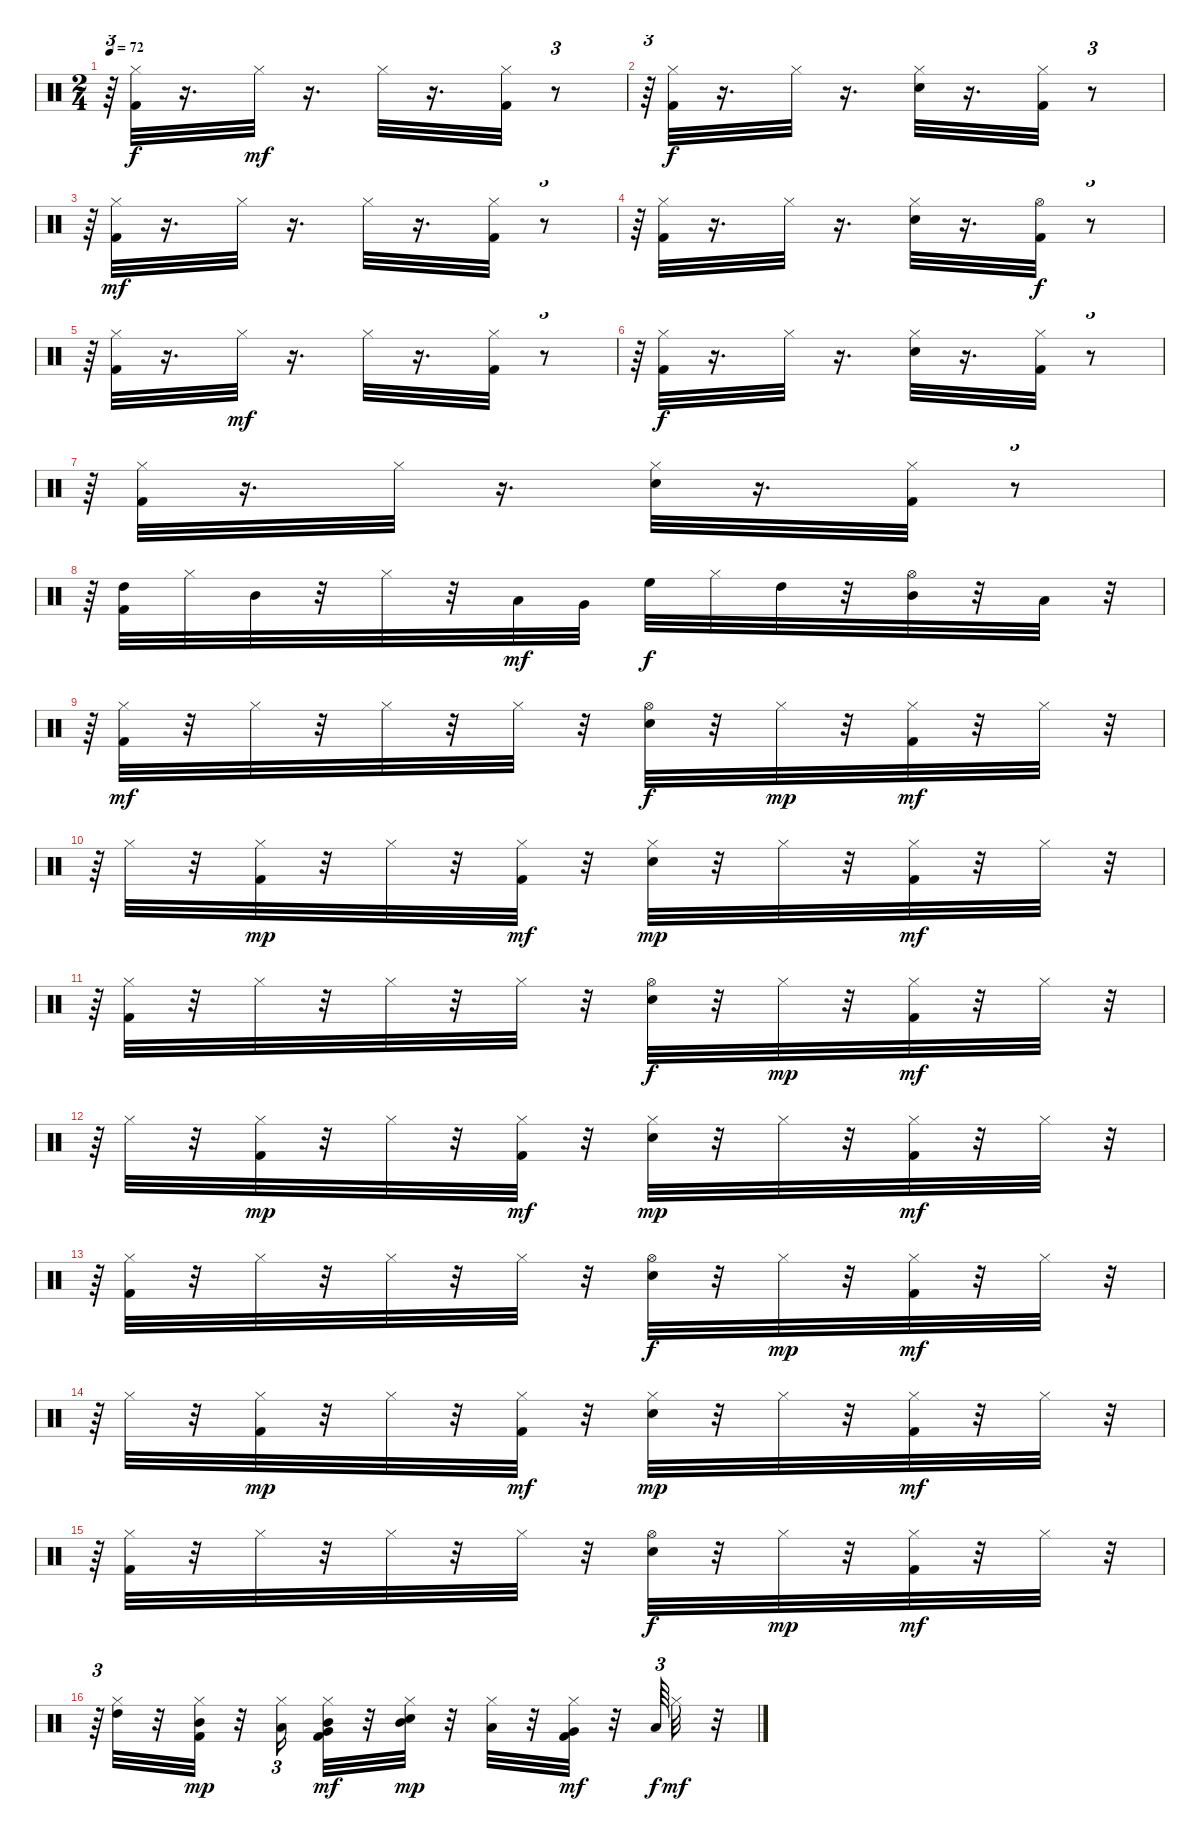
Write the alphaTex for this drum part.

\track "" {instrument percussion}
\staff {score}
\articulation defaults
\ts (2 4)
\tempo 72
\clef neutral
\ks c
r.64{tu (3 2) dy f} ("Hi-Hat (closed)" "Kick (hit) 2").32 r.16{d} "Hi-Hat (closed)".32{dy mf} r.16{d} "Hi-Hat (closed)".32 r.16{d} ("Hi-Hat (closed)" "Kick (hit) 2").32 r.8{tu (3 2)} |
r.64{tu (3 2)} ("Hi-Hat (closed)" "Kick (hit) 2").32{dy f} r.16{d} "Hi-Hat (closed)".32 r.16{d} ("Hi-Hat (closed)" "Snare (hit) 2").32 r.16{d} ("Kick (hit) 2" "Hi-Hat (closed)").32 r.8{tu (3 2)} |
r.64{tu (3 2)} ("Kick (hit) 2" "Hi-Hat (closed)").32{dy mf} r.16{d} "Hi-Hat (closed)".32 r.16{d} "Hi-Hat (closed)".32 r.16{d} ("Hi-Hat (closed)" "Kick (hit) 2").32 r.8{tu (3 2)} |
r.64{tu (3 2)} ("Hi-Hat (closed)" "Kick (hit) 2").32 r.16{d} "Hi-Hat (closed)".32 r.16{d} ("Hi-Hat (closed)" "Snare (hit) 2").32 r.16{d} ("Hi-Hat (open)" "Kick (hit) 2").32{dy f} r.8{tu (3 2)} |
r.64{tu (3 2)} ("Hi-Hat (closed)" "Kick (hit) 2").32 r.16{d} "Hi-Hat (closed)".32{dy mf} r.16{d} "Hi-Hat (closed)".32 r.16{d} ("Hi-Hat (closed)" "Kick (hit) 2").32 r.8{tu (3 2)} |
r.64{tu (3 2)} ("Hi-Hat (closed)" "Kick (hit) 2").32{dy f} r.16{d} "Hi-Hat (closed)".32 r.16{d} ("Hi-Hat (closed)" "Snare (hit) 2").32 r.16{d} ("Kick (hit) 2" "Hi-Hat (closed)").32 r.8{tu (3 2)} |
r.64{tu (3 2)} ("Hi-Hat (closed)" "Kick (hit) 2").32 r.16{d} "Hi-Hat (closed)".32 r.16{d} ("Hi-Hat (closed)" "Snare (hit) 2").32 r.16{d} ("Kick (hit) 2" "Hi-Hat (closed)").32 r.8{tu (3 2)} |
r.64{tu (3 2)} ("High Tom (hit)" "Kick (hit) 2").32 "Hi-Hat (closed)".32 "Mid Tom (hit)".32 r.32 "Hi-Hat (closed)".32 r.32 "Low Tom (hit)".32{dy mf} "Very Low Tom (hit)".32 "High Floor Tom (hit)".32{dy f} "Hi-Hat (closed)".32 "High Tom (hit)".32 r.32 ("Mid Tom (hit)" "Hi-Hat (open)").32 r.32 "Low Tom (hit)".32 r.32{tu (3 2)} |
r.64{tu (3 2)} ("Hi-Hat (closed)" "Kick (hit) 2").32{dy mf} r.32 "Hi-Hat (closed)".32 r.32 "Hi-Hat (closed)".32 r.32 "Hi-Hat (closed)".32 r.32 ("Snare (hit) 2" "Hi-Hat (open)").32{dy f} r.32 "Hi-Hat (closed)".32{dy mp} r.32 ("Kick (hit) 2" "Hi-Hat (closed)").32{dy mf} r.32 "Hi-Hat (closed)".32 r.32{tu (3 2)} |
r.64{tu (3 2)} "Hi-Hat (closed)".32 r.32 ("Hi-Hat (closed)" "Kick (hit) 2").32{dy mp} r.32 "Hi-Hat (closed)".32 r.32 ("Kick (hit) 2" "Hi-Hat (closed)").32{dy mf} r.32 ("Hi-Hat (closed)" "Snare (hit) 2").32{dy mp} r.32 "Hi-Hat (closed)".32 r.32 ("Kick (hit) 2" "Hi-Hat (closed)").32{dy mf} r.32 "Hi-Hat (closed)".32 r.32{tu (3 2)} |
r.64{tu (3 2)} ("Hi-Hat (closed)" "Kick (hit) 2").32 r.32 "Hi-Hat (closed)".32 r.32 "Hi-Hat (closed)".32 r.32 "Hi-Hat (closed)".32 r.32 ("Snare (hit) 2" "Hi-Hat (open)").32{dy f} r.32 "Hi-Hat (closed)".32{dy mp} r.32 ("Kick (hit) 2" "Hi-Hat (closed)").32{dy mf} r.32 "Hi-Hat (closed)".32 r.32{tu (3 2)} |
r.64{tu (3 2)} "Hi-Hat (closed)".32 r.32 ("Hi-Hat (closed)" "Kick (hit) 2").32{dy mp} r.32 "Hi-Hat (closed)".32 r.32 ("Kick (hit) 2" "Hi-Hat (closed)").32{dy mf} r.32 ("Hi-Hat (closed)" "Snare (hit) 2").32{dy mp} r.32 "Hi-Hat (closed)".32 r.32 ("Kick (hit) 2" "Hi-Hat (closed)").32{dy mf} r.32 "Hi-Hat (closed)".32 r.32{tu (3 2)} |
r.64{tu (3 2)} ("Hi-Hat (closed)" "Kick (hit) 2").32 r.32 "Hi-Hat (closed)".32 r.32 "Hi-Hat (closed)".32 r.32 "Hi-Hat (closed)".32 r.32 ("Snare (hit) 2" "Hi-Hat (open)").32{dy f} r.32 "Hi-Hat (closed)".32{dy mp} r.32 ("Kick (hit) 2" "Hi-Hat (closed)").32{dy mf} r.32 "Hi-Hat (closed)".32 r.32{tu (3 2)} |
r.64{tu (3 2)} "Hi-Hat (closed)".32 r.32 ("Hi-Hat (closed)" "Kick (hit) 2").32{dy mp} r.32 "Hi-Hat (closed)".32 r.32 ("Kick (hit) 2" "Hi-Hat (closed)").32{dy mf} r.32 ("Hi-Hat (closed)" "Snare (hit) 2").32{dy mp} r.32 "Hi-Hat (closed)".32 r.32 ("Kick (hit) 2" "Hi-Hat (closed)").32{dy mf} r.32 "Hi-Hat (closed)".32 r.32{tu (3 2)} |
r.64{tu (3 2)} ("Hi-Hat (closed)" "Kick (hit) 2").32 r.32 "Hi-Hat (closed)".32 r.32 "Hi-Hat (closed)".32 r.32 "Hi-Hat (closed)".32 r.32 ("Snare (hit) 2" "Hi-Hat (open)").32{dy f} r.32 "Hi-Hat (closed)".32{dy mp} r.32 ("Kick (hit) 2" "Hi-Hat (closed)").32{dy mf} r.32 "Hi-Hat (closed)".32 r.32{tu (3 2)} |
r.64{tu (3 2)} ("Hi-Hat (closed)" "High Tom (hit)").32 r.32 ("Hi-Hat (closed)" "Kick (hit) 2" "Mid Tom (hit)").32{dy mp} r.32 ("Low Tom (hit)" "Hi-Hat (closed)").16{tu (3 2)} ("Mid Tom (hit)" "Very Low Tom (hit)" "Kick (hit) 2" "Hi-Hat (closed)").32{dy mf} r.32 ("Mid Tom (hit)" "Hi-Hat (closed)" "Snare (hit) 2").32{dy mp} r.32 ("Low Tom (hit)" "Hi-Hat (closed)").32 r.32 ("Very Low Tom (hit)" "Kick (hit) 2" "Hi-Hat (closed)").32{dy mf} r.32 "Low Floor Tom (hit)".64{tu (3 2) dy f} "Hi-Hat (closed)".32{dy mf} r.32
